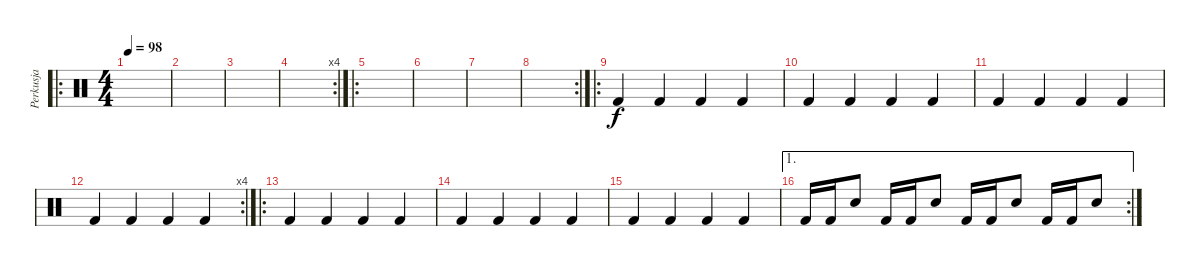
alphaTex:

\track ("Perkusja" "Perkusja") {instrument percussion}
\staff {score}
\articulation defaults
\ro
\ts (4 4)
\tempo 98
\clef neutral
\ks c
|
|
|
\rc 4
|
\ro
|
|
|
\rc 2
|
\ro "Kick (hit) 2".4 "Kick (hit) 2".4 "Kick (hit) 2".4 "Kick (hit) 2".4
|
"Kick (hit) 2".4 "Kick (hit) 2".4 "Kick (hit) 2".4 "Kick (hit) 2".4 |
"Kick (hit) 2".4 "Kick (hit) 2".4 "Kick (hit) 2".4 "Kick (hit) 2".4 |
\rc 4 "Kick (hit) 2".4 "Kick (hit) 2".4 "Kick (hit) 2".4 "Kick (hit) 2".4
|
\ro "Kick (hit) 2".4 "Kick (hit) 2".4 "Kick (hit) 2".4 "Kick (hit) 2".4
|
"Kick (hit) 2".4 "Kick (hit) 2".4 "Kick (hit) 2".4 "Kick (hit) 2".4 |
"Kick (hit) 2".4 "Kick (hit) 2".4 "Kick (hit) 2".4 "Kick (hit) 2".4 |
\ae 1
\rc 2 "Kick (hit) 2".16 "Kick (hit) 2".16 "Snare (hit) 2".8 "Kick (hit) 2".16 "Kick (hit) 2".16 "Snare (hit) 2".8 "Kick (hit) 2".16 "Kick (hit) 2".16 "Snare (hit) 2".8 "Kick (hit) 2".16 "Kick (hit) 2".16 "Snare (hit) 2".8
